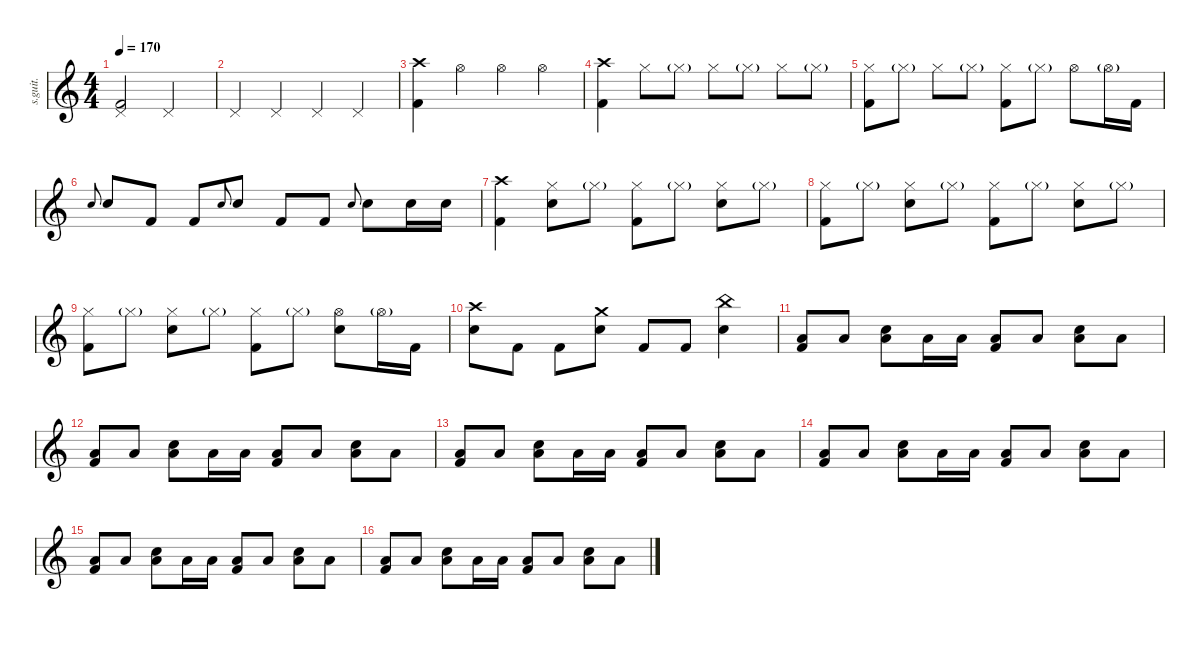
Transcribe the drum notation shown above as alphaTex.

\defaultSystemsLayout 4
\hideDynamics
\bracketExtendMode nobrackets
\track ("Drumkit" "s.guit.") {instrument percussion}
\staff {score}
\articulation defaults
\ts (4 4)
\tempo 170
\clef g2
\ks c
("Pedal Hi-Hat (hit)" "Kick (hit) 2").2{lyrics (0 "") lyrics (1 "") lyrics (2 "") lyrics (3 "") lyrics (4 "") dy ff} "Pedal Hi-Hat (hit)".2{lyrics (0 "") lyrics (1 "") lyrics (2 "") lyrics (3 "") lyrics (4 "")} |
"Pedal Hi-Hat (hit)".4{lyrics (0 "") lyrics (1 "") lyrics (2 "") lyrics (3 "") lyrics (4 "")} "Pedal Hi-Hat (hit)".4{lyrics (0 "") lyrics (1 "") lyrics (2 "") lyrics (3 "") lyrics (4 "")} "Pedal Hi-Hat (hit)".4{lyrics (0 "") lyrics (1 "") lyrics (2 "") lyrics (3 "") lyrics (4 "")} "Pedal Hi-Hat (hit)".4{lyrics (0 "") lyrics (1 "") lyrics (2 "") lyrics (3 "") lyrics (4 "")} |
("Crash high (hit)" "Kick (hit) 2").4{lyrics (0 "") lyrics (1 "") lyrics (2 "") lyrics (3 "") lyrics (4 "")} "Hi-Hat (open)".4{lyrics (0 "") lyrics (1 "") lyrics (2 "") lyrics (3 "") lyrics (4 "")} "Hi-Hat (open)".4{lyrics (0 "") lyrics (1 "") lyrics (2 "") lyrics (3 "") lyrics (4 "")} "Hi-Hat (open)".4{lyrics (0 "") lyrics (1 "") lyrics (2 "") lyrics (3 "") lyrics (4 "")} |
("Crash high (hit)" "Kick (hit) 2").4{lyrics (0 "") lyrics (1 "") lyrics (2 "") lyrics (3 "") lyrics (4 "")} "Hi-Hat (closed)".8{lyrics (0 "") lyrics (1 "") lyrics (2 "") lyrics (3 "") lyrics (4 "")} "Hi-Hat (closed)"{g}.8{lyrics (0 "") lyrics (1 "") lyrics (2 "") lyrics (3 "") lyrics (4 "")} "Hi-Hat (closed)".8{lyrics (0 "") lyrics (1 "") lyrics (2 "") lyrics (3 "") lyrics (4 "")} "Hi-Hat (closed)"{g}.8{lyrics (0 "") lyrics (1 "") lyrics (2 "") lyrics (3 "") lyrics (4 "")} "Hi-Hat (closed)".8{lyrics (0 "") lyrics (1 "") lyrics (2 "") lyrics (3 "") lyrics (4 "")} "Hi-Hat (closed)"{g}.8{lyrics (0 "") lyrics (1 "") lyrics (2 "") lyrics (3 "") lyrics (4 "")} |
("Hi-Hat (closed)" "Kick (hit) 2").8{lyrics (0 "") lyrics (1 "") lyrics (2 "") lyrics (3 "") lyrics (4 "")} "Hi-Hat (closed)"{g}.8{lyrics (0 "") lyrics (1 "") lyrics (2 "") lyrics (3 "") lyrics (4 "")} "Hi-Hat (closed)".8{lyrics (0 "") lyrics (1 "") lyrics (2 "") lyrics (3 "") lyrics (4 "")} "Hi-Hat (closed)"{g}.8{lyrics (0 "") lyrics (1 "") lyrics (2 "") lyrics (3 "") lyrics (4 "")} ("Hi-Hat (closed)" "Kick (hit) 2").8{lyrics (0 "") lyrics (1 "") lyrics (2 "") lyrics (3 "") lyrics (4 "")} "Hi-Hat (closed)"{g}.8{lyrics (0 "") lyrics (1 "") lyrics (2 "") lyrics (3 "") lyrics (4 "")} "Hi-Hat (open)".8{lyrics (0 "") lyrics (1 "") lyrics (2 "") lyrics (3 "") lyrics (4 "")} "Hi-Hat (open)"{g}.16{lyrics (0 "") lyrics (1 "") lyrics (2 "") lyrics (3 "") lyrics (4 "")} "Kick (hit) 2".16{lyrics (0 "") lyrics (1 "") lyrics (2 "") lyrics (3 "") lyrics (4 "")} |
"Snare (hit) 2".8{lyrics (0 "") lyrics (1 "") lyrics (2 "") lyrics (3 "") lyrics (4 "") gr onbeat} "Snare (hit) 2".8{lyrics (0 "") lyrics (1 "") lyrics (2 "") lyrics (3 "") lyrics (4 "")} "Kick (hit) 2".8{lyrics (0 "") lyrics (1 "") lyrics (2 "") lyrics (3 "") lyrics (4 "")} "Kick (hit) 2".8{lyrics (0 "") lyrics (1 "") lyrics (2 "") lyrics (3 "") lyrics (4 "")} "Snare (hit) 2".8{lyrics (0 "") lyrics (1 "") lyrics (2 "") lyrics (3 "") lyrics (4 "") gr onbeat} "Snare (hit) 2".8{lyrics (0 "") lyrics (1 "") lyrics (2 "") lyrics (3 "") lyrics (4 "")} "Kick (hit) 2".8{lyrics (0 "") lyrics (1 "") lyrics (2 "") lyrics (3 "") lyrics (4 "")} "Kick (hit) 2".8{lyrics (0 "") lyrics (1 "") lyrics (2 "") lyrics (3 "") lyrics (4 "")} "Snare (hit) 2".8{lyrics (0 "") lyrics (1 "") lyrics (2 "") lyrics (3 "") lyrics (4 "") gr onbeat} "Snare (hit) 2".8{lyrics (0 "") lyrics (1 "") lyrics (2 "") lyrics (3 "") lyrics (4 "")} "Snare (hit) 2".16{lyrics (0 "") lyrics (1 "") lyrics (2 "") lyrics (3 "") lyrics (4 "")} "Snare (hit) 2".16{lyrics (0 "") lyrics (1 "") lyrics (2 "") lyrics (3 "") lyrics (4 "")} |
("Crash high (hit)" "Kick (hit) 2").4{lyrics (0 "") lyrics (1 "") lyrics (2 "") lyrics (3 "") lyrics (4 "")} ("Hi-Hat (closed)" "Snare (hit) 2").8{lyrics (0 "") lyrics (1 "") lyrics (2 "") lyrics (3 "") lyrics (4 "")} "Hi-Hat (closed)"{g}.8{lyrics (0 "") lyrics (1 "") lyrics (2 "") lyrics (3 "") lyrics (4 "")} ("Hi-Hat (closed)" "Kick (hit) 2").8{lyrics (0 "") lyrics (1 "") lyrics (2 "") lyrics (3 "") lyrics (4 "")} "Hi-Hat (closed)"{g}.8{lyrics (0 "") lyrics (1 "") lyrics (2 "") lyrics (3 "") lyrics (4 "")} ("Hi-Hat (closed)" "Snare (hit) 2").8{lyrics (0 "") lyrics (1 "") lyrics (2 "") lyrics (3 "") lyrics (4 "")} "Hi-Hat (closed)"{g}.8{lyrics (0 "") lyrics (1 "") lyrics (2 "") lyrics (3 "") lyrics (4 "")} |
("Hi-Hat (closed)" "Kick (hit) 2").8{lyrics (0 "") lyrics (1 "") lyrics (2 "") lyrics (3 "") lyrics (4 "")} "Hi-Hat (closed)"{g}.8{lyrics (0 "") lyrics (1 "") lyrics (2 "") lyrics (3 "") lyrics (4 "")} ("Hi-Hat (closed)" "Snare (hit) 2").8{lyrics (0 "") lyrics (1 "") lyrics (2 "") lyrics (3 "") lyrics (4 "")} "Hi-Hat (closed)"{g}.8{lyrics (0 "") lyrics (1 "") lyrics (2 "") lyrics (3 "") lyrics (4 "")} ("Hi-Hat (closed)" "Kick (hit) 2").8{lyrics (0 "") lyrics (1 "") lyrics (2 "") lyrics (3 "") lyrics (4 "")} "Hi-Hat (closed)"{g}.8{lyrics (0 "") lyrics (1 "") lyrics (2 "") lyrics (3 "") lyrics (4 "")} ("Hi-Hat (closed)" "Snare (hit) 2").8{lyrics (0 "") lyrics (1 "") lyrics (2 "") lyrics (3 "") lyrics (4 "")} "Hi-Hat (closed)"{g}.8{lyrics (0 "") lyrics (1 "") lyrics (2 "") lyrics (3 "") lyrics (4 "")} |
("Hi-Hat (closed)" "Kick (hit) 2").8{lyrics (0 "") lyrics (1 "") lyrics (2 "") lyrics (3 "") lyrics (4 "")} "Hi-Hat (closed)"{g}.8{lyrics (0 "") lyrics (1 "") lyrics (2 "") lyrics (3 "") lyrics (4 "")} ("Hi-Hat (closed)" "Snare (hit) 2").8{lyrics (0 "") lyrics (1 "") lyrics (2 "") lyrics (3 "") lyrics (4 "")} "Hi-Hat (closed)"{g}.8{lyrics (0 "") lyrics (1 "") lyrics (2 "") lyrics (3 "") lyrics (4 "")} ("Hi-Hat (closed)" "Kick (hit) 2").8{lyrics (0 "") lyrics (1 "") lyrics (2 "") lyrics (3 "") lyrics (4 "")} "Hi-Hat (closed)"{g}.8{lyrics (0 "") lyrics (1 "") lyrics (2 "") lyrics (3 "") lyrics (4 "")} ("Hi-Hat (open)" "Snare (hit) 2").8{lyrics (0 "") lyrics (1 "") lyrics (2 "") lyrics (3 "") lyrics (4 "")} "Hi-Hat (open)"{g}.16{lyrics (0 "") lyrics (1 "") lyrics (2 "") lyrics (3 "") lyrics (4 "")} "Kick (hit) 2".16{lyrics (0 "") lyrics (1 "") lyrics (2 "") lyrics (3 "") lyrics (4 "")} |
("Snare (hit) 2" "Crash high (hit)").8{lyrics (0 "") lyrics (1 "") lyrics (2 "") lyrics (3 "") lyrics (4 "")} "Kick (hit) 2".8{lyrics (0 "") lyrics (1 "") lyrics (2 "") lyrics (3 "") lyrics (4 "")} "Kick (hit) 2".8{lyrics (0 "") lyrics (1 "") lyrics (2 "") lyrics (3 "") lyrics (4 "")} ("Snare (hit) 2" "Crash medium (hit)").8{lyrics (0 "") lyrics (1 "") lyrics (2 "") lyrics (3 "") lyrics (4 "")} "Kick (hit) 2".8{lyrics (0 "") lyrics (1 "") lyrics (2 "") lyrics (3 "") lyrics (4 "")} "Kick (hit) 2".8{lyrics (0 "") lyrics (1 "") lyrics (2 "") lyrics (3 "") lyrics (4 "")} ("Snare (hit) 2" "China (hit)").4{lyrics (0 "") lyrics (1 "") lyrics (2 "") lyrics (3 "") lyrics (4 "")} |
("Low Floor Tom (hit)" "Kick (hit) 2").8{lyrics (0 "") lyrics (1 "") lyrics (2 "") lyrics (3 "") lyrics (4 "")} "Low Floor Tom (hit)".8{lyrics (0 "") lyrics (1 "") lyrics (2 "") lyrics (3 "") lyrics (4 "")} ("Snare (hit) 2" "Low Floor Tom (hit)").8{lyrics (0 "") lyrics (1 "") lyrics (2 "") lyrics (3 "") lyrics (4 "")} "Low Floor Tom (hit)".16{lyrics (0 "") lyrics (1 "") lyrics (2 "") lyrics (3 "") lyrics (4 "")} "Low Floor Tom (hit)".16{lyrics (0 "") lyrics (1 "") lyrics (2 "") lyrics (3 "") lyrics (4 "")} ("Low Floor Tom (hit)" "Kick (hit) 2").8{lyrics (0 "") lyrics (1 "") lyrics (2 "") lyrics (3 "") lyrics (4 "")} "Low Floor Tom (hit)".8{lyrics (0 "") lyrics (1 "") lyrics (2 "") lyrics (3 "") lyrics (4 "")} ("Snare (hit) 2" "Low Floor Tom (hit)").8{lyrics (0 "") lyrics (1 "") lyrics (2 "") lyrics (3 "") lyrics (4 "")} "Low Floor Tom (hit)".8{lyrics (0 "") lyrics (1 "") lyrics (2 "") lyrics (3 "") lyrics (4 "")} |
("Low Floor Tom (hit)" "Kick (hit) 2").8{lyrics (0 "") lyrics (1 "") lyrics (2 "") lyrics (3 "") lyrics (4 "")} "Low Floor Tom (hit)".8{lyrics (0 "") lyrics (1 "") lyrics (2 "") lyrics (3 "") lyrics (4 "")} ("Snare (hit) 2" "Low Floor Tom (hit)").8{lyrics (0 "") lyrics (1 "") lyrics (2 "") lyrics (3 "") lyrics (4 "")} "Low Floor Tom (hit)".16{lyrics (0 "") lyrics (1 "") lyrics (2 "") lyrics (3 "") lyrics (4 "")} "Low Floor Tom (hit)".16{lyrics (0 "") lyrics (1 "") lyrics (2 "") lyrics (3 "") lyrics (4 "")} ("Low Floor Tom (hit)" "Kick (hit) 2").8{lyrics (0 "") lyrics (1 "") lyrics (2 "") lyrics (3 "") lyrics (4 "")} "Low Floor Tom (hit)".8{lyrics (0 "") lyrics (1 "") lyrics (2 "") lyrics (3 "") lyrics (4 "")} ("Snare (hit) 2" "Low Floor Tom (hit)").8{lyrics (0 "") lyrics (1 "") lyrics (2 "") lyrics (3 "") lyrics (4 "")} "Low Floor Tom (hit)".8{lyrics (0 "") lyrics (1 "") lyrics (2 "") lyrics (3 "") lyrics (4 "")} |
("Low Floor Tom (hit)" "Kick (hit) 2").8{lyrics (0 "") lyrics (1 "") lyrics (2 "") lyrics (3 "") lyrics (4 "")} "Low Floor Tom (hit)".8{lyrics (0 "") lyrics (1 "") lyrics (2 "") lyrics (3 "") lyrics (4 "")} ("Snare (hit) 2" "Low Floor Tom (hit)").8{lyrics (0 "") lyrics (1 "") lyrics (2 "") lyrics (3 "") lyrics (4 "")} "Low Floor Tom (hit)".16{lyrics (0 "") lyrics (1 "") lyrics (2 "") lyrics (3 "") lyrics (4 "")} "Low Floor Tom (hit)".16{lyrics (0 "") lyrics (1 "") lyrics (2 "") lyrics (3 "") lyrics (4 "")} ("Low Floor Tom (hit)" "Kick (hit) 2").8{lyrics (0 "") lyrics (1 "") lyrics (2 "") lyrics (3 "") lyrics (4 "")} "Low Floor Tom (hit)".8{lyrics (0 "") lyrics (1 "") lyrics (2 "") lyrics (3 "") lyrics (4 "")} ("Snare (hit) 2" "Low Floor Tom (hit)").8{lyrics (0 "") lyrics (1 "") lyrics (2 "") lyrics (3 "") lyrics (4 "")} "Low Floor Tom (hit)".8{lyrics (0 "") lyrics (1 "") lyrics (2 "") lyrics (3 "") lyrics (4 "")} |
("Low Floor Tom (hit)" "Kick (hit) 2").8{lyrics (0 "") lyrics (1 "") lyrics (2 "") lyrics (3 "") lyrics (4 "")} "Low Floor Tom (hit)".8{lyrics (0 "") lyrics (1 "") lyrics (2 "") lyrics (3 "") lyrics (4 "")} ("Snare (hit) 2" "Low Floor Tom (hit)").8{lyrics (0 "") lyrics (1 "") lyrics (2 "") lyrics (3 "") lyrics (4 "")} "Low Floor Tom (hit)".16{lyrics (0 "") lyrics (1 "") lyrics (2 "") lyrics (3 "") lyrics (4 "")} "Low Floor Tom (hit)".16{lyrics (0 "") lyrics (1 "") lyrics (2 "") lyrics (3 "") lyrics (4 "")} ("Low Floor Tom (hit)" "Kick (hit) 2").8{lyrics (0 "") lyrics (1 "") lyrics (2 "") lyrics (3 "") lyrics (4 "")} "Low Floor Tom (hit)".8{lyrics (0 "") lyrics (1 "") lyrics (2 "") lyrics (3 "") lyrics (4 "")} ("Snare (hit) 2" "Low Floor Tom (hit)").8{lyrics (0 "") lyrics (1 "") lyrics (2 "") lyrics (3 "") lyrics (4 "")} "Low Floor Tom (hit)".8{lyrics (0 "") lyrics (1 "") lyrics (2 "") lyrics (3 "") lyrics (4 "")} |
("Low Floor Tom (hit)" "Kick (hit) 2").8{lyrics (0 "") lyrics (1 "") lyrics (2 "") lyrics (3 "") lyrics (4 "")} "Low Floor Tom (hit)".8{lyrics (0 "") lyrics (1 "") lyrics (2 "") lyrics (3 "") lyrics (4 "")} ("Snare (hit) 2" "Low Floor Tom (hit)").8{lyrics (0 "") lyrics (1 "") lyrics (2 "") lyrics (3 "") lyrics (4 "")} "Low Floor Tom (hit)".16{lyrics (0 "") lyrics (1 "") lyrics (2 "") lyrics (3 "") lyrics (4 "")} "Low Floor Tom (hit)".16{lyrics (0 "") lyrics (1 "") lyrics (2 "") lyrics (3 "") lyrics (4 "")} ("Low Floor Tom (hit)" "Kick (hit) 2").8{lyrics (0 "") lyrics (1 "") lyrics (2 "") lyrics (3 "") lyrics (4 "")} "Low Floor Tom (hit)".8{lyrics (0 "") lyrics (1 "") lyrics (2 "") lyrics (3 "") lyrics (4 "")} ("Snare (hit) 2" "Low Floor Tom (hit)").8{lyrics (0 "") lyrics (1 "") lyrics (2 "") lyrics (3 "") lyrics (4 "")} "Low Floor Tom (hit)".8{lyrics (0 "") lyrics (1 "") lyrics (2 "") lyrics (3 "") lyrics (4 "")} |
("Low Floor Tom (hit)" "Kick (hit) 2").8{lyrics (0 "") lyrics (1 "") lyrics (2 "") lyrics (3 "") lyrics (4 "")} "Low Floor Tom (hit)".8{lyrics (0 "") lyrics (1 "") lyrics (2 "") lyrics (3 "") lyrics (4 "")} ("Snare (hit) 2" "Low Floor Tom (hit)").8{lyrics (0 "") lyrics (1 "") lyrics (2 "") lyrics (3 "") lyrics (4 "")} "Low Floor Tom (hit)".16{lyrics (0 "") lyrics (1 "") lyrics (2 "") lyrics (3 "") lyrics (4 "")} "Low Floor Tom (hit)".16{lyrics (0 "") lyrics (1 "") lyrics (2 "") lyrics (3 "") lyrics (4 "")} ("Low Floor Tom (hit)" "Kick (hit) 2").8{lyrics (0 "") lyrics (1 "") lyrics (2 "") lyrics (3 "") lyrics (4 "")} "Low Floor Tom (hit)".8{lyrics (0 "") lyrics (1 "") lyrics (2 "") lyrics (3 "") lyrics (4 "")} ("Snare (hit) 2" "Low Floor Tom (hit)").8{lyrics (0 "") lyrics (1 "") lyrics (2 "") lyrics (3 "") lyrics (4 "")} "Low Floor Tom (hit)".8{lyrics (0 "") lyrics (1 "") lyrics (2 "") lyrics (3 "") lyrics (4 "")}
